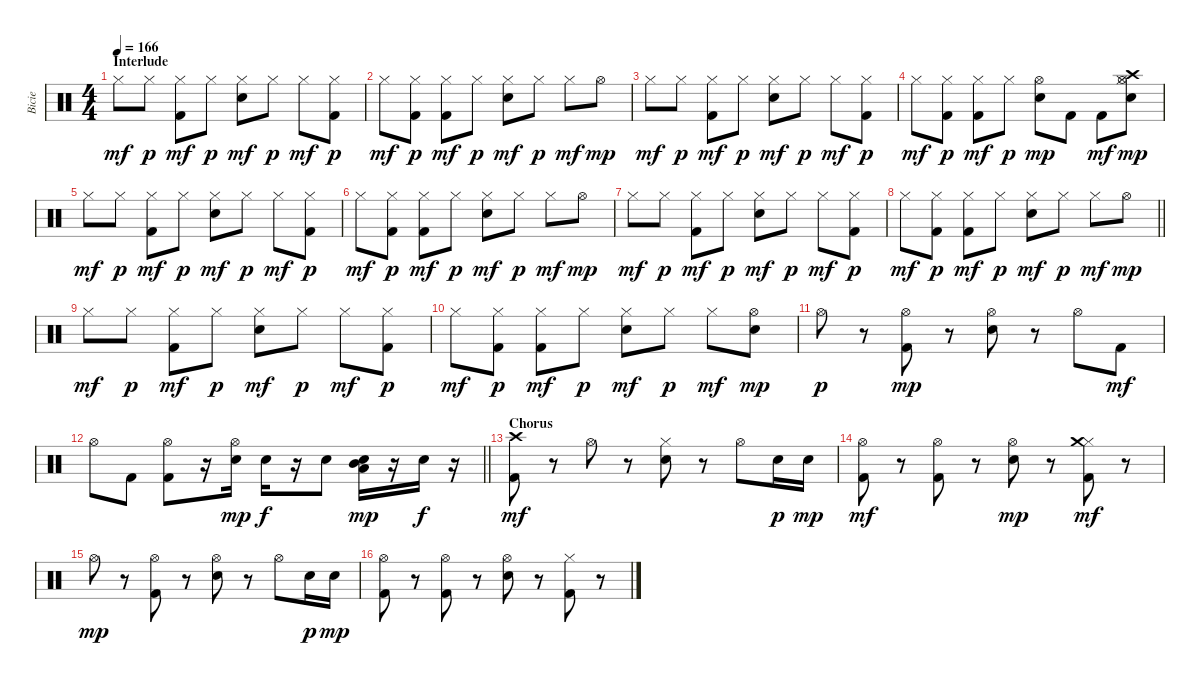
\track ("Bicie" "Bicie") {instrument percussion}
\staff {score}
\articulation defaults
\ts (4 4)
\section ("" "Interlude")
\tempo 166
\clef neutral
\ks c "Hi-Hat (closed)".8{dy mf} "Hi-Hat (closed)".8{dy p}
("Kick (hit) 2" "Hi-Hat (closed)").8{dy mf} "Hi-Hat (closed)".8{dy p} ("Electric Snare (hit)" "Hi-Hat (closed)").8{dy mf} "Hi-Hat (closed)".8{dy p} "Hi-Hat (closed)".8{dy mf} ("Kick (hit) 2" "Hi-Hat (closed)").8{dy p} |
"Hi-Hat (closed)".8{dy mf} ("Kick (hit) 2" "Hi-Hat (closed)").8{dy p} ("Kick (hit) 2" "Hi-Hat (closed)").8{dy mf} "Hi-Hat (closed)".8{dy p} ("Electric Snare (hit)" "Hi-Hat (closed)").8{dy mf} "Hi-Hat (closed)".8{dy p} "Hi-Hat (closed)".8{dy mf} "Hi-Hat (open)".8{dy mp} |
"Hi-Hat (closed)".8{dy mf} "Hi-Hat (closed)".8{dy p} ("Kick (hit) 2" "Hi-Hat (closed)").8{dy mf} "Hi-Hat (closed)".8{dy p} ("Electric Snare (hit)" "Hi-Hat (closed)").8{dy mf} "Hi-Hat (closed)".8{dy p} "Hi-Hat (closed)".8{dy mf} ("Kick (hit) 2" "Hi-Hat (closed)").8{dy p} |
"Hi-Hat (closed)".8{dy mf} ("Kick (hit) 2" "Hi-Hat (closed)").8{dy p} ("Kick (hit) 2" "Hi-Hat (closed)").8{dy mf} "Hi-Hat (closed)".8{dy p} ("Hi-Hat (open)" "Electric Snare (hit)").8{dy mp} "Kick (hit) 2".8 "Kick (hit) 2".8{dy mf} ("Hi-Hat (closed)" "Electric Snare (hit)" "Hi-Hat (open)" "Crash high (hit)").8{dy mp} |
"Hi-Hat (closed)".8{dy mf} "Hi-Hat (closed)".8{dy p} ("Kick (hit) 2" "Hi-Hat (closed)").8{dy mf} "Hi-Hat (closed)".8{dy p} ("Electric Snare (hit)" "Hi-Hat (closed)").8{dy mf} "Hi-Hat (closed)".8{dy p} "Hi-Hat (closed)".8{dy mf} ("Kick (hit) 2" "Hi-Hat (closed)").8{dy p} |
"Hi-Hat (closed)".8{dy mf} ("Kick (hit) 2" "Hi-Hat (closed)").8{dy p} ("Kick (hit) 2" "Hi-Hat (closed)").8{dy mf} "Hi-Hat (closed)".8{dy p} ("Electric Snare (hit)" "Hi-Hat (closed)").8{dy mf} "Hi-Hat (closed)".8{dy p} "Hi-Hat (closed)".8{dy mf} "Hi-Hat (open)".8{dy mp} |
"Hi-Hat (closed)".8{dy mf} "Hi-Hat (closed)".8{dy p} ("Kick (hit) 2" "Hi-Hat (closed)").8{dy mf} "Hi-Hat (closed)".8{dy p} ("Electric Snare (hit)" "Hi-Hat (closed)").8{dy mf} "Hi-Hat (closed)".8{dy p} "Hi-Hat (closed)".8{dy mf} ("Kick (hit) 2" "Hi-Hat (closed)").8{dy p} |
\barLineRight lightlight "Hi-Hat (closed)".8{dy mf}
("Kick (hit) 2" "Hi-Hat (closed)").8{dy p} ("Kick (hit) 2" "Hi-Hat (closed)").8{dy mf} "Hi-Hat (closed)".8{dy p} ("Electric Snare (hit)" "Hi-Hat (closed)").8{dy mf} "Hi-Hat (closed)".8{dy p} "Hi-Hat (closed)".8{dy mf} "Hi-Hat (open)".8{dy mp} |
"Hi-Hat (closed)".8{dy mf} "Hi-Hat (closed)".8{dy p} ("Kick (hit) 2" "Hi-Hat (closed)").8{dy mf} "Hi-Hat (closed)".8{dy p} ("Electric Snare (hit)" "Hi-Hat (closed)").8{dy mf} "Hi-Hat (closed)".8{dy p} "Hi-Hat (closed)".8{dy mf} ("Kick (hit) 2" "Hi-Hat (closed)").8{dy p} |
"Hi-Hat (closed)".8{dy mf} ("Kick (hit) 2" "Hi-Hat (closed)").8{dy p} ("Kick (hit) 2" "Hi-Hat (closed)").8{dy mf} "Hi-Hat (closed)".8{dy p} ("Electric Snare (hit)" "Hi-Hat (closed)").8{dy mf} "Hi-Hat (closed)".8{dy p} "Hi-Hat (closed)".8{dy mf} ("Electric Snare (hit)" "Hi-Hat (open)").8{dy mp} |
"Hi-Hat (open)".8{dy p} r.8 ("Kick (hit) 2" "Hi-Hat (open)").8{dy mp} r.8 ("Electric Snare (hit)" "Hi-Hat (open)").8 r.8 "Hi-Hat (open)".8 "Kick (hit) 2".8{dy mf} |
\barLineRight lightlight "Hi-Hat (open)".8 "Kick (hit) 2".8
("Kick (hit) 2" "Hi-Hat (open)").8 r.16 ("Hi-Hat (open)" "Electric Snare (hit)").16{dy mp} "Electric Snare (hit)".16{dy f} r.16 "Electric Snare (hit)".8 ("Low Tom (hit)" "Mid Tom (hit)" "Electric Snare (hit)").16{dy mp} r.16 "Electric Snare (hit)".16{dy f} r.16 |
\section ("" "Chorus")
("Crash high (hit)" "Kick (hit) 2").8{dy mf} r.8 "Hi-Hat (open)".8 r.8 ("Hi-Hat (closed)" "Electric Snare (hit)").8 r.8 "Hi-Hat (open)".8 "Electric Snare (hit)".16{dy p} "Electric Snare (hit)".16{dy mp} |
("Hi-Hat (open)" "Kick (hit) 2").8{dy mf} r.8 ("Hi-Hat (open)" "Kick (hit) 2").8 r.8 ("Hi-Hat (open)" "Electric Snare (hit)").8{dy mp} r.8 ("Hi-Hat (closed)" "Crash medium (hit)" "Kick (hit) 2").8{dy mf} r.8 |
"Hi-Hat (open)".8{dy mp} r.8 ("Hi-Hat (open)" "Kick (hit) 2").8 r.8 ("Hi-Hat (open)" "Electric Snare (hit)").8 r.8 "Hi-Hat (open)".8 "Electric Snare (hit)".16{dy p} "Electric Snare (hit)".16{dy mp} |
("Hi-Hat (open)" "Kick (hit) 2").8 r.8 ("Hi-Hat (open)" "Kick (hit) 2").8 r.8 ("Hi-Hat (open)" "Electric Snare (hit)").8 r.8 ("Hi-Hat (closed)" "Kick (hit) 2").8 r.8
